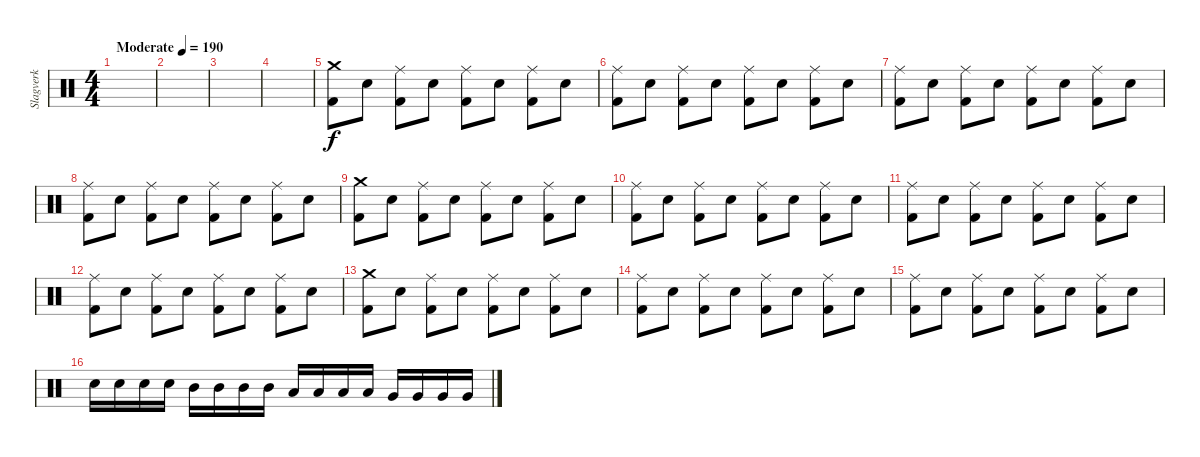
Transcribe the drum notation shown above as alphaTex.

\track ("Slagverk" "Slagverk") {instrument percussion}
\staff {score}
\articulation defaults
\ts (4 4)
\tempo (190 "Moderate")
\clef neutral
\ks c
|
|
|
|
("Crash medium (hit)" "Kick (hit) 2").8 "Electric Snare (hit)".8 ("Ride (middle)" "Kick (hit) 2").8 "Electric Snare (hit)".8 ("Ride (middle)" "Kick (hit) 2").8 "Electric Snare (hit)".8 ("Ride (middle)" "Kick (hit) 2").8 "Electric Snare (hit)".8 |
("Ride (middle)" "Kick (hit) 2").8 "Electric Snare (hit)".8 ("Ride (middle)" "Kick (hit) 2").8 "Electric Snare (hit)".8 ("Ride (middle)" "Kick (hit) 2").8 "Electric Snare (hit)".8 ("Ride (middle)" "Kick (hit) 2").8 "Electric Snare (hit)".8 |
("Ride (middle)" "Kick (hit) 2").8 "Electric Snare (hit)".8 ("Ride (middle)" "Kick (hit) 2").8 "Electric Snare (hit)".8 ("Ride (middle)" "Kick (hit) 2").8 "Electric Snare (hit)".8 ("Ride (middle)" "Kick (hit) 2").8 "Electric Snare (hit)".8 |
("Ride (middle)" "Kick (hit) 2").8 "Electric Snare (hit)".8 ("Ride (middle)" "Kick (hit) 2").8 "Electric Snare (hit)".8 ("Ride (middle)" "Kick (hit) 2").8 "Electric Snare (hit)".8 ("Ride (middle)" "Kick (hit) 2").8 "Electric Snare (hit)".8 |
("Crash medium (hit)" "Kick (hit) 2").8 "Electric Snare (hit)".8 ("Ride (middle)" "Kick (hit) 2").8 "Electric Snare (hit)".8 ("Ride (middle)" "Kick (hit) 2").8 "Electric Snare (hit)".8 ("Ride (middle)" "Kick (hit) 2").8 "Electric Snare (hit)".8 |
("Ride (middle)" "Kick (hit) 2").8 "Electric Snare (hit)".8 ("Ride (middle)" "Kick (hit) 2").8 "Electric Snare (hit)".8 ("Ride (middle)" "Kick (hit) 2").8 "Electric Snare (hit)".8 ("Ride (middle)" "Kick (hit) 2").8 "Electric Snare (hit)".8 |
("Ride (middle)" "Kick (hit) 2").8 "Electric Snare (hit)".8 ("Ride (middle)" "Kick (hit) 2").8 "Electric Snare (hit)".8 ("Ride (middle)" "Kick (hit) 2").8 "Electric Snare (hit)".8 ("Ride (middle)" "Kick (hit) 2").8 "Electric Snare (hit)".8 |
("Ride (middle)" "Kick (hit) 2").8 "Electric Snare (hit)".8 ("Ride (middle)" "Kick (hit) 2").8 "Electric Snare (hit)".8 ("Ride (middle)" "Kick (hit) 2").8 "Electric Snare (hit)".8 ("Ride (middle)" "Kick (hit) 2").8 "Electric Snare (hit)".8 |
("Crash medium (hit)" "Kick (hit) 2").8 "Electric Snare (hit)".8 ("Ride (middle)" "Kick (hit) 2").8 "Electric Snare (hit)".8 ("Ride (middle)" "Kick (hit) 2").8 "Electric Snare (hit)".8 ("Ride (middle)" "Kick (hit) 2").8 "Electric Snare (hit)".8 |
("Ride (middle)" "Kick (hit) 2").8 "Electric Snare (hit)".8 ("Ride (middle)" "Kick (hit) 2").8 "Electric Snare (hit)".8 ("Ride (middle)" "Kick (hit) 2").8 "Electric Snare (hit)".8 ("Ride (middle)" "Kick (hit) 2").8 "Electric Snare (hit)".8 |
("Ride (middle)" "Kick (hit) 2").8 "Electric Snare (hit)".8 ("Ride (middle)" "Kick (hit) 2").8 "Electric Snare (hit)".8 ("Ride (middle)" "Kick (hit) 2").8 "Electric Snare (hit)".8 ("Ride (middle)" "Kick (hit) 2").8 "Electric Snare (hit)".8 |
"Electric Snare (hit)".16 "Electric Snare (hit)".16 "Electric Snare (hit)".16 "Electric Snare (hit)".16 "Mid Tom (hit)".16 "Mid Tom (hit)".16 "Mid Tom (hit)".16 "Mid Tom (hit)".16 "Low Tom (hit)".16 "Low Tom (hit)".16 "Low Tom (hit)".16 "Low Tom (hit)".16 "Very Low Tom (hit)".16 "Very Low Tom (hit)".16 "Very Low Tom (hit)".16 "Very Low Tom (hit)".16
